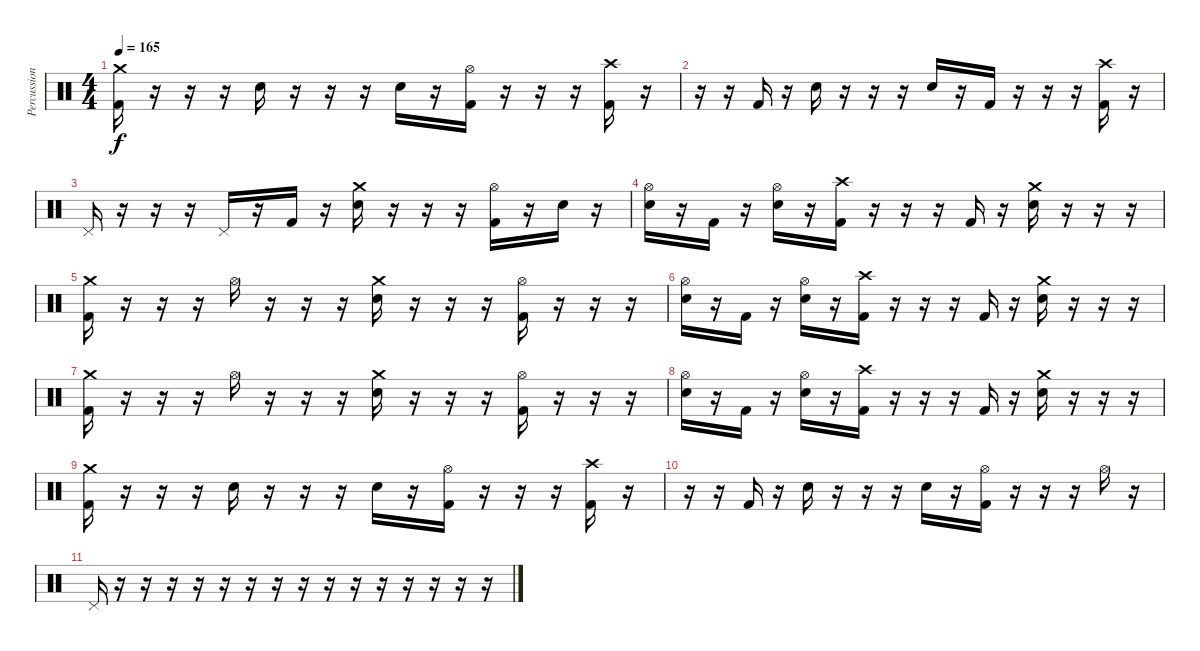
\track ("Percussion" "Percussion") {instrument percussion}
\staff {score}
\articulation defaults
\ts (4 4)
\tempo 165
\clef neutral
\ks c
("Crash medium (hit)" "Kick (hit) 2").16{dy f} r.16 r.16 r.16 "Electric Snare (hit)".16 r.16 r.16 r.16 "Electric Snare (hit)".16 r.16 ("Hi-Hat (open)" "Kick (hit) 2").16 r.16 r.16 r.16 ("Crash high (hit)" "Kick (hit) 2").16 r.16 |
r.16 r.16 "Kick (hit) 2".16 r.16 "Electric Snare (hit)".16 r.16 r.16 r.16 "Electric Snare (hit)".16 r.16 "Kick (hit) 2".16 r.16 r.16 r.16 ("Crash high (hit)" "Kick (hit) 2").16 r.16 |
"Pedal Hi-Hat (hit)".16 r.16 r.16 r.16 "Pedal Hi-Hat (hit)".16 r.16 "Kick (hit) 2".16 r.16 ("Crash medium (hit)" "Electric Snare (hit)").16 r.16 r.16 r.16 ("Hi-Hat (open)" "Kick (hit) 2").16 r.16 "Electric Snare (hit)".16 r.16 |
("Hi-Hat (open)" "Electric Snare (hit)").16 r.16 "Kick (hit) 2".16 r.16 ("Hi-Hat (open)" "Electric Snare (hit)").16 r.16 ("Crash high (hit)" "Kick (hit) 2").16 r.16 r.16 r.16 "Kick (hit) 2".16 r.16 ("Crash medium (hit)" "Electric Snare (hit)").16 r.16 r.16 r.16 |
("Crash medium (hit)" "Kick (hit) 2").16 r.16 r.16 r.16 "Hi-Hat (open)".16 r.16 r.16 r.16 ("Crash medium (hit)" "Electric Snare (hit)").16 r.16 r.16 r.16 ("Hi-Hat (open)" "Kick (hit) 2").16 r.16 r.16 r.16 |
("Hi-Hat (open)" "Electric Snare (hit)").16 r.16 "Kick (hit) 2".16 r.16 ("Hi-Hat (open)" "Electric Snare (hit)").16 r.16 ("Crash high (hit)" "Kick (hit) 2").16 r.16 r.16 r.16 "Kick (hit) 2".16 r.16 ("Crash medium (hit)" "Electric Snare (hit)").16 r.16 r.16 r.16 |
("Crash medium (hit)" "Kick (hit) 2").16 r.16 r.16 r.16 "Hi-Hat (open)".16 r.16 r.16 r.16 ("Crash medium (hit)" "Electric Snare (hit)").16 r.16 r.16 r.16 ("Hi-Hat (open)" "Kick (hit) 2").16 r.16 r.16 r.16 |
("Hi-Hat (open)" "Electric Snare (hit)").16 r.16 "Kick (hit) 2".16 r.16 ("Hi-Hat (open)" "Electric Snare (hit)").16 r.16 ("Crash high (hit)" "Kick (hit) 2").16 r.16 r.16 r.16 "Kick (hit) 2".16 r.16 ("Crash medium (hit)" "Electric Snare (hit)").16 r.16 r.16 r.16 |
("Crash medium (hit)" "Kick (hit) 2").16 r.16 r.16 r.16 "Electric Snare (hit)".16 r.16 r.16 r.16 "Electric Snare (hit)".16 r.16 ("Hi-Hat (open)" "Kick (hit) 2").16 r.16 r.16 r.16 ("Crash high (hit)" "Kick (hit) 2").16 r.16 |
r.16 r.16 "Kick (hit) 2".16 r.16 "Electric Snare (hit)".16 r.16 r.16 r.16 "Electric Snare (hit)".16 r.16 ("Hi-Hat (open)" "Kick (hit) 2").16 r.16 r.16 r.16 "Hi-Hat (open)".16 r.16 |
"Pedal Hi-Hat (hit)".16 r.16 r.16 r.16 r.16 r.16 r.16 r.16 r.16 r.16 r.16 r.16 r.16 r.16 r.16 r.16
